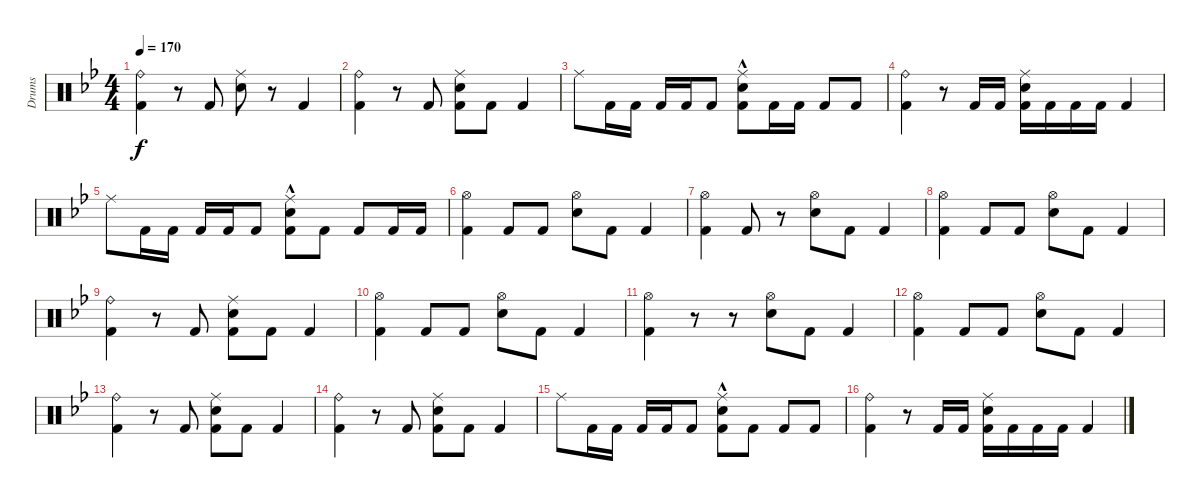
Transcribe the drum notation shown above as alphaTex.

\defaultSystemsLayout 4
\bracketExtendMode groupsimilarinstruments
\otherSystemsTrackNameOrientation horizontal
\track ("Drumkit" "Drums") {instrument percussion}
\staff {score}
\articulation defaults
\ts (4 4)
\tempo 170
\clef neutral
\ks bb
("Ride (bell)"{acc forcenatural} "Kick (hit) 2"{acc forcenatural}).4{dy f} r.8 "Kick (hit) 2"{acc forcenatural}.8 ("Snare (hit) 2"{acc forcenatural} "Ride (middle)"{acc forcenatural}).8 r.8 "Kick (hit) 2"{acc forcenatural}.4 |
("Ride (bell)"{acc forcenatural} "Kick (hit) 2"{acc forcenatural}).4 r.8 "Kick (hit) 2"{acc forcenatural}.8 ("Kick (hit) 2"{acc forcenatural} "Snare (hit) 2"{acc forcenatural} "Ride (middle)"{acc forcenatural}).8 "Kick (hit) 2"{acc forcenatural}.8 "Kick (hit) 2"{acc forcenatural}.4 |
"Ride (middle)"{acc forcenatural}.8 "Kick (hit) 2"{acc forcenatural}.16 "Kick (hit) 2"{acc forcenatural}.16 "Kick (hit) 2"{acc forcenatural}.16 "Kick (hit) 2"{acc forcenatural}.16 "Kick (hit) 2"{acc forcenatural}.8 ("Kick (hit) 2"{acc forcenatural} "Snare (hit) 2"{hac acc forcenatural} "Ride (middle)"{acc forcenatural}).8 "Kick (hit) 2"{acc forcenatural}.16 "Kick (hit) 2"{acc forcenatural}.16 "Kick (hit) 2"{acc forcenatural}.8 "Kick (hit) 2"{acc forcenatural}.8 |
("Ride (bell)"{acc forcenatural} "Kick (hit) 2"{acc forcenatural}).4 r.8 "Kick (hit) 2"{acc forcenatural}.16 "Kick (hit) 2"{acc forcenatural}.16 ("Kick (hit) 2"{acc forcenatural} "Snare (hit) 2"{acc forcenatural} "Ride (middle)"{acc forcenatural}).16 "Kick (hit) 2"{acc forcenatural}.16 "Kick (hit) 2"{acc forcenatural}.16 "Kick (hit) 2"{acc forcenatural}.16 "Kick (hit) 2"{acc forcenatural}.4 |
"Ride (middle)"{acc forcenatural}.8 "Kick (hit) 2"{acc forcenatural}.16 "Kick (hit) 2"{acc forcenatural}.16 "Kick (hit) 2"{acc forcenatural}.16 "Kick (hit) 2"{acc forcenatural}.16 "Kick (hit) 2"{acc forcenatural}.8 ("Kick (hit) 2"{acc forcenatural} "Snare (hit) 2"{hac acc forcenatural} "Ride (middle)"{acc forcenatural}).8 "Kick (hit) 2"{acc forcenatural}.8 "Kick (hit) 2"{acc forcenatural}.8 "Kick (hit) 2"{acc forcenatural}.16 "Kick (hit) 2"{acc forcenatural}.16 |
("Hi-Hat (open)"{acc forcenatural} "Kick (hit) 2"{acc forcenatural}).4 "Kick (hit) 2"{acc forcenatural}.8 "Kick (hit) 2"{acc forcenatural}.8 ("Snare (hit) 2"{acc forcenatural} "Hi-Hat (open)"{acc forcenatural}).8 "Kick (hit) 2"{acc forcenatural}.8 "Kick (hit) 2"{acc forcenatural}.4 |
("Hi-Hat (open)"{acc forcenatural} "Kick (hit) 2"{acc forcenatural}).4 "Kick (hit) 2"{acc forcenatural}.8 r.8 ("Snare (hit) 2"{acc forcenatural} "Hi-Hat (open)"{acc forcenatural}).8 "Kick (hit) 2"{acc forcenatural}.8 "Kick (hit) 2"{acc forcenatural}.4 |
("Hi-Hat (open)"{acc forcenatural} "Kick (hit) 2"{acc forcenatural}).4 "Kick (hit) 2"{acc forcenatural}.8 "Kick (hit) 2"{acc forcenatural}.8 ("Snare (hit) 2"{acc forcenatural} "Hi-Hat (open)"{acc forcenatural}).8 "Kick (hit) 2"{acc forcenatural}.8 "Kick (hit) 2"{acc forcenatural}.4 |
("Ride (bell)"{acc forcenatural} "Kick (hit) 2"{acc forcenatural}).4 r.8 "Kick (hit) 2"{acc forcenatural}.8 ("Kick (hit) 2"{acc forcenatural} "Snare (hit) 2"{acc forcenatural} "Ride (middle)"{acc forcenatural}).8 "Kick (hit) 2"{acc forcenatural}.8 "Kick (hit) 2"{acc forcenatural}.4 |
("Hi-Hat (open)"{acc forcenatural} "Kick (hit) 2"{acc forcenatural}).4 "Kick (hit) 2"{acc forcenatural}.8 "Kick (hit) 2"{acc forcenatural}.8 ("Snare (hit) 2"{acc forcenatural} "Hi-Hat (open)"{acc forcenatural}).8 "Kick (hit) 2"{acc forcenatural}.8 "Kick (hit) 2"{acc forcenatural}.4 |
("Hi-Hat (open)"{acc forcenatural} "Kick (hit) 2"{acc forcenatural}).4 r.8 r.8 ("Snare (hit) 2"{acc forcenatural} "Hi-Hat (open)"{acc forcenatural}).8 "Kick (hit) 2"{acc forcenatural}.8 "Kick (hit) 2"{acc forcenatural}.4 |
("Hi-Hat (open)"{acc forcenatural} "Kick (hit) 2"{acc forcenatural}).4 "Kick (hit) 2"{acc forcenatural}.8 "Kick (hit) 2"{acc forcenatural}.8 ("Snare (hit) 2"{acc forcenatural} "Hi-Hat (open)"{acc forcenatural}).8 "Kick (hit) 2"{acc forcenatural}.8 "Kick (hit) 2"{acc forcenatural}.4 |
("Ride (bell)"{acc forcenatural} "Kick (hit) 2"{acc forcenatural}).4 r.8 "Kick (hit) 2"{acc forcenatural}.8 ("Kick (hit) 2"{acc forcenatural} "Snare (hit) 2"{acc forcenatural} "Ride (middle)"{acc forcenatural}).8 "Kick (hit) 2"{acc forcenatural}.8 "Kick (hit) 2"{acc forcenatural}.4 |
("Ride (bell)"{acc forcenatural} "Kick (hit) 2"{acc forcenatural}).4 r.8 "Kick (hit) 2"{acc forcenatural}.8 ("Kick (hit) 2"{acc forcenatural} "Snare (hit) 2"{acc forcenatural} "Ride (middle)"{acc forcenatural}).8 "Kick (hit) 2"{acc forcenatural}.8 "Kick (hit) 2"{acc forcenatural}.4 |
"Ride (middle)"{acc forcenatural}.8 "Kick (hit) 2"{acc forcenatural}.16 "Kick (hit) 2"{acc forcenatural}.16 "Kick (hit) 2"{acc forcenatural}.16 "Kick (hit) 2"{acc forcenatural}.16 "Kick (hit) 2"{acc forcenatural}.8 ("Kick (hit) 2"{acc forcenatural} "Snare (hit) 2"{hac acc forcenatural} "Ride (middle)"{acc forcenatural}).8 "Kick (hit) 2"{acc forcenatural}.8 "Kick (hit) 2"{acc forcenatural}.8 "Kick (hit) 2"{acc forcenatural}.8 |
("Ride (bell)"{acc forcenatural} "Kick (hit) 2"{acc forcenatural}).4 r.8 "Kick (hit) 2"{acc forcenatural}.16 "Kick (hit) 2"{acc forcenatural}.16 ("Kick (hit) 2"{acc forcenatural} "Snare (hit) 2"{acc forcenatural} "Ride (middle)"{acc forcenatural}).16 "Kick (hit) 2"{acc forcenatural}.16 "Kick (hit) 2"{acc forcenatural}.16 "Kick (hit) 2"{acc forcenatural}.16 "Kick (hit) 2"{acc forcenatural}.4
